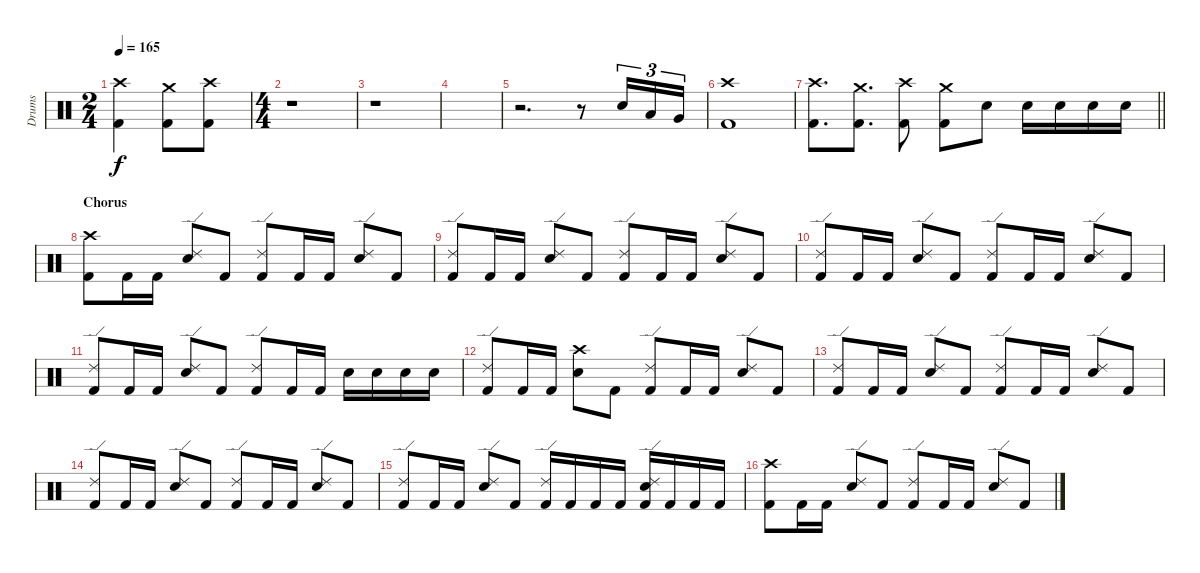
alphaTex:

\track ("Drums" "Drums") {instrument percussion}
\staff {score}
\articulation defaults
\ts (2 4)
\tempo 165
\clef neutral
\ks c
("Crash high (hit)" "Kick (hit) 2").4{dy f} ("Crash medium (hit)" "Kick (hit) 2").8 ("Crash high (hit)" "Kick (hit) 2").8 |
\ts (4 4)
r.1 |
r.1 |
|
r.2{d} r.8 "Snare (hit) 2".16{tu (3 2)} "Low Tom (hit)".16{tu (3 2)} "Very Low Tom (hit)".16{tu (3 2)} |
("Crash high (hit)" "Kick (hit) 2").1 |
\barLineRight lightlight
("Crash high (hit)" "Kick (hit) 2").8{d} ("Crash medium (hit)" "Kick (hit) 2").8{d} ("Crash high (hit)" "Kick (hit) 2").8 ("Crash medium (hit)" "Kick (hit) 2").8 "Snare (hit) 2".8 "Snare (hit) 2".16 "Snare (hit) 2".16 "Snare (hit) 2".16 "Snare (hit) 2".16 |
\section ("" "Chorus")
("Crash high (hit)" "Kick (hit) 2").8 "Kick (hit) 2".16 "Kick (hit) 2".16 ("Ride (edge) 2" "Snare (hit) 2").8 "Kick (hit) 2".8 ("Ride (edge) 2" "Kick (hit) 2").8 "Kick (hit) 2".16 "Kick (hit) 2".16 ("Ride (edge) 2" "Snare (hit) 2").8 "Kick (hit) 2".8 |
("Ride (edge) 2" "Kick (hit) 2").8 "Kick (hit) 2".16 "Kick (hit) 2".16 ("Ride (edge) 2" "Snare (hit) 2").8 "Kick (hit) 2".8 ("Ride (edge) 2" "Kick (hit) 2").8 "Kick (hit) 2".16 "Kick (hit) 2".16 ("Ride (edge) 2" "Snare (hit) 2").8 "Kick (hit) 2".8 |
("Ride (edge) 2" "Kick (hit) 2").8 "Kick (hit) 2".16 "Kick (hit) 2".16 ("Ride (edge) 2" "Snare (hit) 2").8 "Kick (hit) 2".8 ("Ride (edge) 2" "Kick (hit) 2").8 "Kick (hit) 2".16 "Kick (hit) 2".16 ("Ride (edge) 2" "Snare (hit) 2").8 "Kick (hit) 2".8 |
("Ride (edge) 2" "Kick (hit) 2").8 "Kick (hit) 2".16 "Kick (hit) 2".16 ("Ride (edge) 2" "Snare (hit) 2").8 "Kick (hit) 2".8 ("Ride (edge) 2" "Kick (hit) 2").8 "Kick (hit) 2".16 "Kick (hit) 2".16 "Snare (hit) 2".16 "Snare (hit) 2".16 "Snare (hit) 2".16 "Snare (hit) 2".16 |
("Ride (edge) 2" "Kick (hit) 2").8 "Kick (hit) 2".16 "Kick (hit) 2".16 ("Crash high (hit)" "Snare (hit) 2").8 "Kick (hit) 2".8 ("Ride (edge) 2" "Kick (hit) 2").8 "Kick (hit) 2".16 "Kick (hit) 2".16 ("Ride (edge) 2" "Snare (hit) 2").8 "Kick (hit) 2".8 |
("Ride (edge) 2" "Kick (hit) 2").8 "Kick (hit) 2".16 "Kick (hit) 2".16 ("Ride (edge) 2" "Snare (hit) 2").8 "Kick (hit) 2".8 ("Ride (edge) 2" "Kick (hit) 2").8 "Kick (hit) 2".16 "Kick (hit) 2".16 ("Ride (edge) 2" "Snare (hit) 2").8 "Kick (hit) 2".8 |
("Ride (edge) 2" "Kick (hit) 2").8 "Kick (hit) 2".16 "Kick (hit) 2".16 ("Ride (edge) 2" "Snare (hit) 2").8 "Kick (hit) 2".8 ("Ride (edge) 2" "Kick (hit) 2").8 "Kick (hit) 2".16 "Kick (hit) 2".16 ("Ride (edge) 2" "Snare (hit) 2").8 "Kick (hit) 2".8 |
("Ride (edge) 2" "Kick (hit) 2").8 "Kick (hit) 2".16 "Kick (hit) 2".16 ("Ride (edge) 2" "Snare (hit) 2").8 "Kick (hit) 2".8 ("Ride (edge) 2" "Kick (hit) 2").16 "Kick (hit) 2".16 "Kick (hit) 2".16 "Kick (hit) 2".16 ("Ride (edge) 2" "Snare (hit) 2" "Kick (hit) 2").16 "Kick (hit) 2".16 "Kick (hit) 2".16 "Kick (hit) 2".16 |
("Crash high (hit)" "Kick (hit) 2").8 "Kick (hit) 2".16 "Kick (hit) 2".16 ("Ride (edge) 2" "Snare (hit) 2").8 "Kick (hit) 2".8 ("Ride (edge) 2" "Kick (hit) 2").8 "Kick (hit) 2".16 "Kick (hit) 2".16 ("Ride (edge) 2" "Snare (hit) 2").8 "Kick (hit) 2".8
